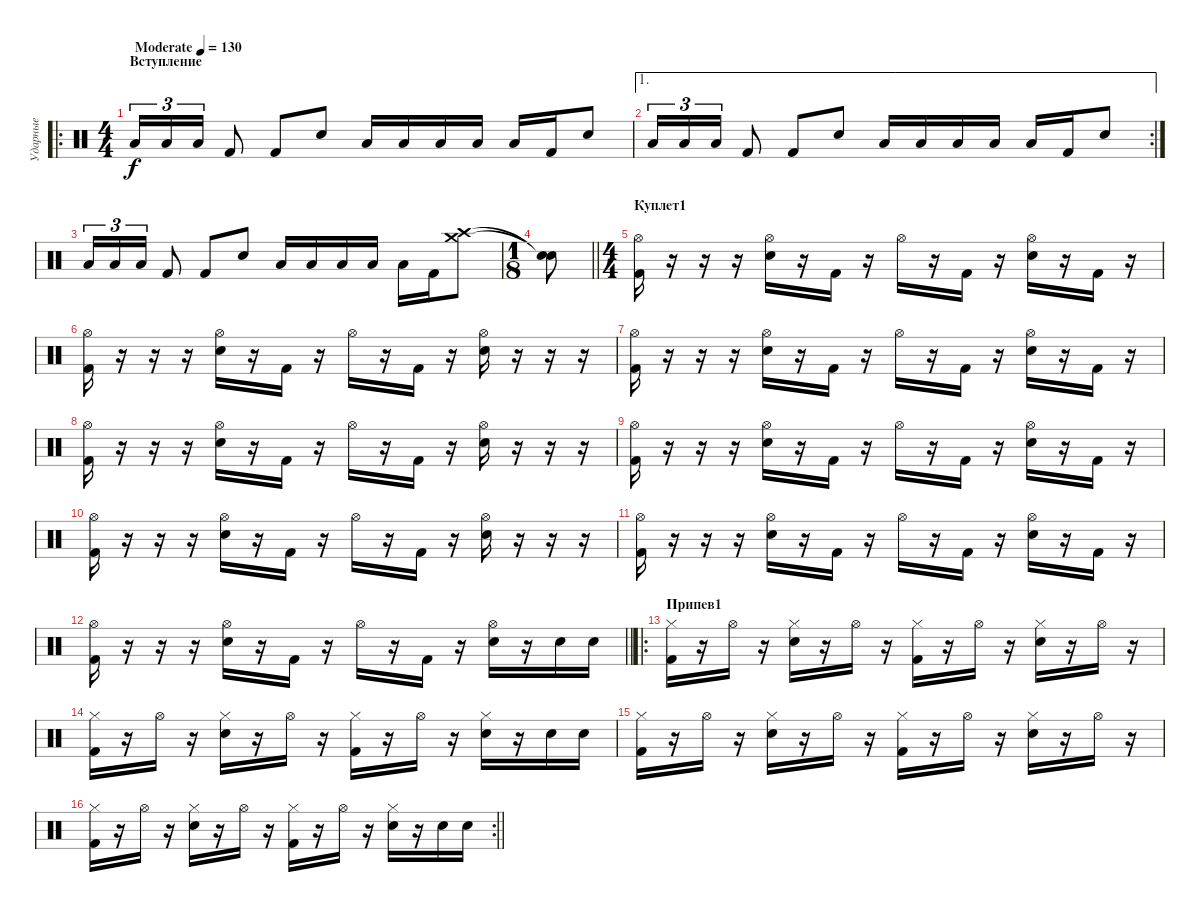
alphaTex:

\track ("Ударные" "Ударные") {instrument percussion}
\staff {score}
\articulation defaults
\ro
\ts (4 4)
\section ("" "Вступление")
\tempo (130 "Moderate")
\clef neutral
\ks c "Low Floor Tom (hit)".16{tu (3 2) dy f} "Low Floor Tom (hit)".16{tu (3 2)} "Low Floor Tom (hit)".16{tu (3 2)} "Kick (hit) 2".8 "Kick (hit) 2".8 "Electric Snare (hit)".8 "Low Tom (hit)".16 "Low Floor Tom (hit)".16 "Low Tom (hit)".16 "Low Floor Tom (hit)".16 "Low Tom (hit)".16 "Kick (hit) 2".16 "Electric Snare (hit)".8
|
\ae 1
\rc 2 "Low Floor Tom (hit)".16{tu (3 2)} "Low Floor Tom (hit)".16{tu (3 2)} "Low Floor Tom (hit)".16{tu (3 2)} "Kick (hit) 2".8 "Kick (hit) 2".8 "Electric Snare (hit)".8 "Low Tom (hit)".16 "Low Floor Tom (hit)".16 "Low Tom (hit)".16 "Low Floor Tom (hit)".16 "Low Tom (hit)".16 "Kick (hit) 2".16 "Electric Snare (hit)".8
|
"Low Floor Tom (hit)".16{tu (3 2)} "Low Floor Tom (hit)".16{tu (3 2)} "Low Floor Tom (hit)".16{tu (3 2)} "Kick (hit) 2".8 "Kick (hit) 2".8 "Electric Snare (hit)".8 "Low Tom (hit)".16 "Low Floor Tom (hit)".16 "Low Tom (hit)".16 "Low Floor Tom (hit)".16 "Low Tom (hit)".16 "Kick (hit) 2".16 ("Crash medium (hit)" "Crash high (hit)").8 |
\ts (1 8)
\barLineRight lightlight
("Snare (hit)"{t} "Snare (hit)"{t}).8 |
\ts (4 4)
\section ("" "Куплет1")
("Hi-Hat (open)" "Kick (hit) 2").16 r.16 r.16 r.16 ("Hi-Hat (open)" "Electric Snare (hit)").16 r.16 "Kick (hit) 2".16 r.16 "Hi-Hat (open)".16 r.16 "Kick (hit) 2".16 r.16 ("Hi-Hat (open)" "Electric Snare (hit)").16 r.16 "Kick (hit) 2".16 r.16 |
("Hi-Hat (open)" "Kick (hit) 2").16 r.16 r.16 r.16 ("Hi-Hat (open)" "Electric Snare (hit)").16 r.16 "Kick (hit) 2".16 r.16 "Hi-Hat (open)".16 r.16 "Kick (hit) 2".16 r.16 ("Hi-Hat (open)" "Electric Snare (hit)").16 r.16 r.16 r.16 |
("Hi-Hat (open)" "Kick (hit) 2").16 r.16 r.16 r.16 ("Hi-Hat (open)" "Electric Snare (hit)").16 r.16 "Kick (hit) 2".16 r.16 "Hi-Hat (open)".16 r.16 "Kick (hit) 2".16 r.16 ("Hi-Hat (open)" "Electric Snare (hit)").16 r.16 "Kick (hit) 2".16 r.16 |
("Hi-Hat (open)" "Kick (hit) 2").16 r.16 r.16 r.16 ("Hi-Hat (open)" "Electric Snare (hit)").16 r.16 "Kick (hit) 2".16 r.16 "Hi-Hat (open)".16 r.16 "Kick (hit) 2".16 r.16 ("Hi-Hat (open)" "Electric Snare (hit)").16 r.16 r.16 r.16 |
("Hi-Hat (open)" "Kick (hit) 2").16 r.16 r.16 r.16 ("Hi-Hat (open)" "Electric Snare (hit)").16 r.16 "Kick (hit) 2".16 r.16 "Hi-Hat (open)".16 r.16 "Kick (hit) 2".16 r.16 ("Hi-Hat (open)" "Electric Snare (hit)").16 r.16 "Kick (hit) 2".16 r.16 |
("Hi-Hat (open)" "Kick (hit) 2").16 r.16 r.16 r.16 ("Hi-Hat (open)" "Electric Snare (hit)").16 r.16 "Kick (hit) 2".16 r.16 "Hi-Hat (open)".16 r.16 "Kick (hit) 2".16 r.16 ("Hi-Hat (open)" "Electric Snare (hit)").16 r.16 r.16 r.16 |
("Hi-Hat (open)" "Kick (hit) 2").16 r.16 r.16 r.16 ("Hi-Hat (open)" "Electric Snare (hit)").16 r.16 "Kick (hit) 2".16 r.16 "Hi-Hat (open)".16 r.16 "Kick (hit) 2".16 r.16 ("Hi-Hat (open)" "Electric Snare (hit)").16 r.16 "Kick (hit) 2".16 r.16 |
\barLineRight lightlight
("Hi-Hat (open)" "Kick (hit) 2").16 r.16 r.16 r.16 ("Hi-Hat (open)" "Electric Snare (hit)").16 r.16 "Kick (hit) 2".16 r.16 "Hi-Hat (open)".16 r.16 "Kick (hit) 2".16 r.16 ("Hi-Hat (open)" "Electric Snare (hit)").16 r.16 "Electric Snare (hit)".16 "Electric Snare (hit)".16 |
\ro
\section ("" "Припев1")
("Hi-Hat (closed)" "Kick (hit) 2").16 r.16 "Hi-Hat (open)".16 r.16 ("Hi-Hat (closed)" "Electric Snare (hit)").16 r.16 "Hi-Hat (open)".16 r.16 ("Hi-Hat (closed)" "Kick (hit) 2").16 r.16 "Hi-Hat (open)".16 r.16 ("Hi-Hat (closed)" "Electric Snare (hit)").16 r.16 "Hi-Hat (open)".16 r.16 |
("Hi-Hat (closed)" "Kick (hit) 2").16 r.16 "Hi-Hat (open)".16 r.16 ("Hi-Hat (closed)" "Electric Snare (hit)").16 r.16 "Hi-Hat (open)".16 r.16 ("Hi-Hat (closed)" "Kick (hit) 2").16 r.16 "Hi-Hat (open)".16 r.16 ("Hi-Hat (closed)" "Electric Snare (hit)").16 r.16 "Electric Snare (hit)".16 "Electric Snare (hit)".16 |
("Hi-Hat (closed)" "Kick (hit) 2").16 r.16 "Hi-Hat (open)".16 r.16 ("Hi-Hat (closed)" "Electric Snare (hit)").16 r.16 "Hi-Hat (open)".16 r.16 ("Hi-Hat (closed)" "Kick (hit) 2").16 r.16 "Hi-Hat (open)".16 r.16 ("Hi-Hat (closed)" "Electric Snare (hit)").16 r.16 "Hi-Hat (open)".16 r.16 |
\rc 2
\barLineRight lightlight
("Hi-Hat (closed)" "Kick (hit) 2").16 r.16 "Hi-Hat (open)".16 r.16 ("Hi-Hat (closed)" "Electric Snare (hit)").16 r.16 "Hi-Hat (open)".16 r.16 ("Hi-Hat (closed)" "Kick (hit) 2").16 r.16 "Hi-Hat (open)".16 r.16 ("Hi-Hat (closed)" "Electric Snare (hit)").16 r.16 "Electric Snare (hit)".16 "Electric Snare (hit)".16
